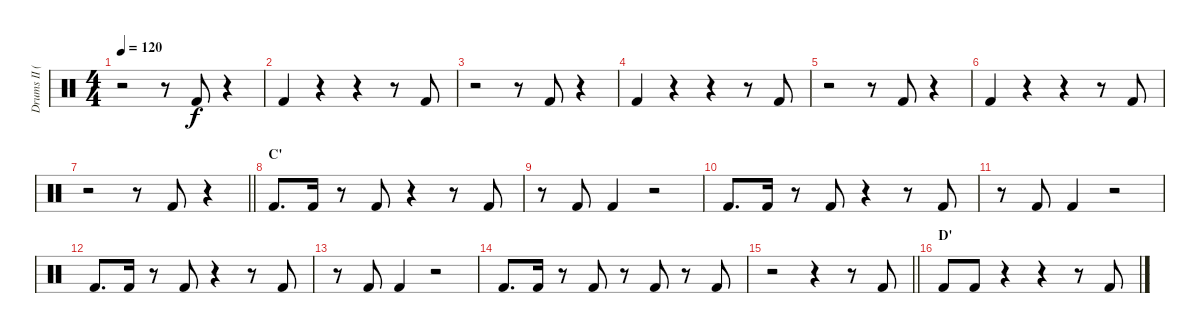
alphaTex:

\track ("Drums II (Ruka)" "Drums II (") {instrument percussion}
\staff {score}
\articulation defaults
\ts (4 4)
\tempo 120
\clef neutral
\ks c
r.2{dy f} r.8 "Kick (hit) 2".8 r.4 |
"Kick (hit) 2".4 r.4 r.4 r.8 "Kick (hit) 2".8 |
r.2 r.8 "Kick (hit) 2".8 r.4 |
"Kick (hit) 2".4 r.4 r.4 r.8 "Kick (hit) 2".8 |
r.2 r.8 "Kick (hit) 2".8 r.4 |
"Kick (hit) 2".4 r.4 r.4 r.8 "Kick (hit) 2".8 |
\barLineRight lightlight
r.2 r.8 "Kick (hit) 2".8 r.4 |
\section ("" "C'")
"Kick (hit) 2".8{d} "Kick (hit) 2".16 r.8 "Kick (hit) 2".8 r.4 r.8 "Kick (hit) 2".8 |
r.8 "Kick (hit) 2".8 "Kick (hit) 2".4 r.2 |
"Kick (hit) 2".8{d} "Kick (hit) 2".16 r.8 "Kick (hit) 2".8 r.4 r.8 "Kick (hit) 2".8 |
r.8 "Kick (hit) 2".8 "Kick (hit) 2".4 r.2 |
"Kick (hit) 2".8{d} "Kick (hit) 2".16 r.8 "Kick (hit) 2".8 r.4 r.8 "Kick (hit) 2".8 |
r.8 "Kick (hit) 2".8 "Kick (hit) 2".4 r.2 |
"Kick (hit) 2".8{d} "Kick (hit) 2".16 r.8 "Kick (hit) 2".8 r.8 "Kick (hit) 2".8 r.8 "Kick (hit) 2".8 |
\barLineRight lightlight
r.2 r.4 r.8 "Kick (hit) 2".8 |
\section ("" "D'")
"Kick (hit) 2".8 "Kick (hit) 2".8 r.4 r.4 r.8 "Kick (hit) 2".8
